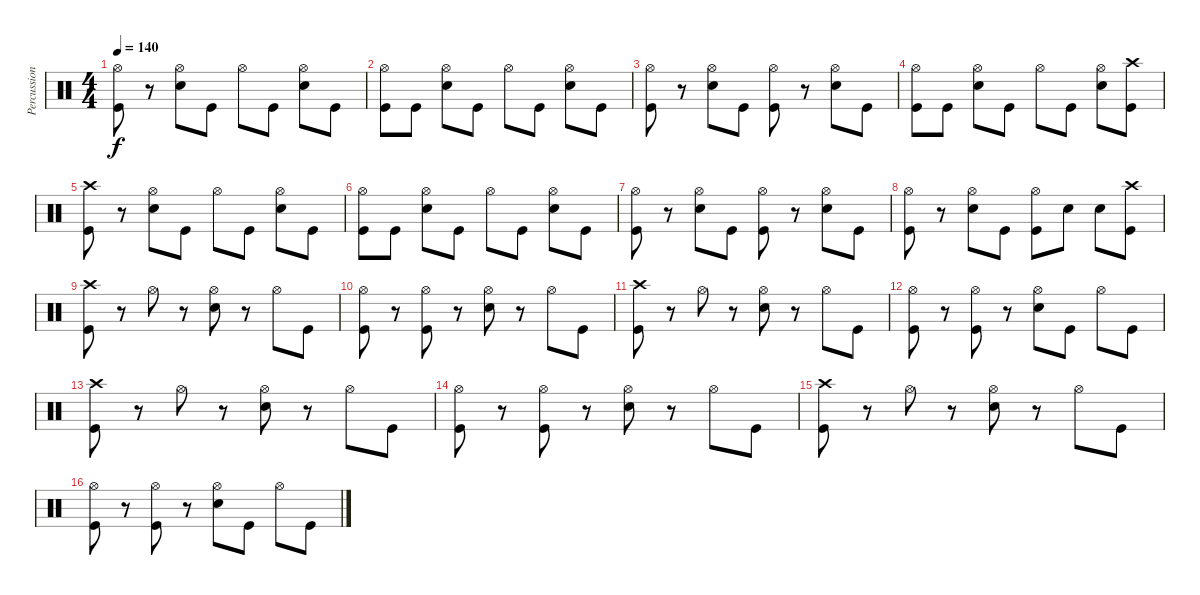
\track ("Percussion" "Percussion") {instrument percussion}
\staff {score}
\articulation defaults
\ts (4 4)
\tempo 140
\clef neutral
\ks c
("Hi-Hat (open)" "Kick (hit)").8{dy f} r.8 ("Hi-Hat (open)" "Snare (hit) 2").8 "Kick (hit)".8 "Hi-Hat (open)".8 "Kick (hit)".8 ("Hi-Hat (open)" "Snare (hit) 2").8 "Kick (hit)".8 |
("Hi-Hat (open)" "Kick (hit)").8 "Kick (hit)".8 ("Hi-Hat (open)" "Snare (hit) 2").8 "Kick (hit)".8 "Hi-Hat (open)".8 "Kick (hit)".8 ("Hi-Hat (open)" "Snare (hit) 2").8 "Kick (hit)".8 |
("Hi-Hat (open)" "Kick (hit)").8 r.8 ("Hi-Hat (open)" "Snare (hit) 2").8 "Kick (hit)".8 ("Hi-Hat (open)" "Kick (hit)").8 r.8 ("Hi-Hat (open)" "Snare (hit) 2").8 "Kick (hit)".8 |
("Hi-Hat (open)" "Kick (hit)").8 "Kick (hit)".8 ("Hi-Hat (open)" "Snare (hit) 2").8 "Kick (hit)".8 "Hi-Hat (open)".8 "Kick (hit)".8 ("Hi-Hat (open)" "Snare (hit) 2").8 ("Crash high (hit)" "Kick (hit)").8 |
("Crash high (hit)" "Kick (hit)").8 r.8 ("Hi-Hat (open)" "Snare (hit) 2").8 "Kick (hit)".8 "Hi-Hat (open)".8 "Kick (hit)".8 ("Hi-Hat (open)" "Snare (hit) 2").8 "Kick (hit)".8 |
("Hi-Hat (open)" "Kick (hit)").8 "Kick (hit)".8 ("Hi-Hat (open)" "Snare (hit) 2").8 "Kick (hit)".8 "Hi-Hat (open)".8 "Kick (hit)".8 ("Hi-Hat (open)" "Snare (hit) 2").8 "Kick (hit)".8 |
("Hi-Hat (open)" "Kick (hit)").8 r.8 ("Hi-Hat (open)" "Snare (hit) 2").8 "Kick (hit)".8 ("Hi-Hat (open)" "Kick (hit)").8 r.8 ("Hi-Hat (open)" "Snare (hit) 2").8 "Kick (hit)".8 |
("Hi-Hat (open)" "Kick (hit)").8 r.8 ("Hi-Hat (open)" "Snare (hit) 2").8 "Kick (hit)".8 ("Hi-Hat (open)" "Kick (hit)").8 "Snare (hit) 2".8 "Snare (hit) 2".8 ("Crash high (hit)" "Kick (hit)").8 |
("Crash high (hit)" "Kick (hit)").8 r.8 "Hi-Hat (open)".8 r.8 ("Hi-Hat (open)" "Snare (hit) 2").8 r.8 "Hi-Hat (open)".8 "Kick (hit)".8 |
("Hi-Hat (open)" "Kick (hit)").8 r.8 ("Hi-Hat (open)" "Kick (hit)").8 r.8 ("Hi-Hat (open)" "Snare (hit) 2").8 r.8 "Hi-Hat (open)".8 "Kick (hit)".8 |
("Crash high (hit)" "Kick (hit)").8 r.8 "Hi-Hat (open)".8 r.8 ("Hi-Hat (open)" "Snare (hit) 2").8 r.8 "Hi-Hat (open)".8 "Kick (hit)".8 |
("Hi-Hat (open)" "Kick (hit)").8 r.8 ("Hi-Hat (open)" "Kick (hit)").8 r.8 ("Hi-Hat (open)" "Snare (hit) 2").8 "Kick (hit)".8 "Hi-Hat (open)".8 "Kick (hit)".8 |
("Crash high (hit)" "Kick (hit)").8 r.8 "Hi-Hat (open)".8 r.8 ("Hi-Hat (open)" "Snare (hit) 2").8 r.8 "Hi-Hat (open)".8 "Kick (hit)".8 |
("Hi-Hat (open)" "Kick (hit)").8 r.8 ("Hi-Hat (open)" "Kick (hit)").8 r.8 ("Hi-Hat (open)" "Snare (hit) 2").8 r.8 "Hi-Hat (open)".8 "Kick (hit)".8 |
("Crash high (hit)" "Kick (hit)").8 r.8 "Hi-Hat (open)".8 r.8 ("Hi-Hat (open)" "Snare (hit) 2").8 r.8 "Hi-Hat (open)".8 "Kick (hit)".8 |
("Hi-Hat (open)" "Kick (hit)").8 r.8 ("Hi-Hat (open)" "Kick (hit)").8 r.8 ("Hi-Hat (open)" "Snare (hit) 2").8 "Kick (hit)".8 "Hi-Hat (open)".8 "Kick (hit)".8
